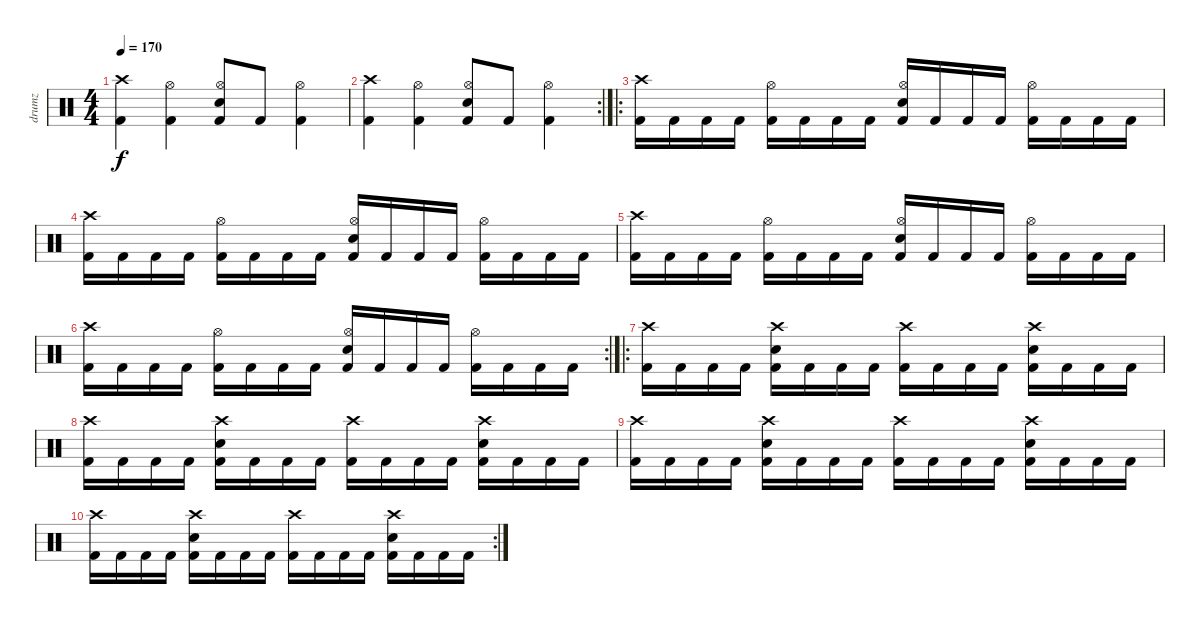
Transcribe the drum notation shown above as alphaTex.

\track ("drumz" "drumz") {instrument percussion}
\staff {score}
\articulation defaults
\ts (4 4)
\tempo 170
\clef neutral
\ks c
("Crash high (hit)" "Kick (hit) 2").4{dy f} ("Hi-Hat (open)" "Kick (hit) 2").4 ("Hi-Hat (open)" "Electric Snare (hit)" "Kick (hit) 2").8 "Kick (hit) 2".8 ("Hi-Hat (open)" "Kick (hit) 2").4 |
\rc 2
("Crash high (hit)" "Kick (hit) 2").4 ("Hi-Hat (open)" "Kick (hit) 2").4 ("Hi-Hat (open)" "Electric Snare (hit)" "Kick (hit) 2").8 "Kick (hit) 2".8 ("Hi-Hat (open)" "Kick (hit) 2").4 |
\ro
("Crash high (hit)" "Kick (hit) 2").16 "Kick (hit) 2".16 "Kick (hit) 2".16 "Kick (hit) 2".16 ("Hi-Hat (open)" "Kick (hit) 2").16 "Kick (hit) 2".16 "Kick (hit) 2".16 "Kick (hit) 2".16 ("Hi-Hat (open)" "Electric Snare (hit)" "Kick (hit) 2").16 "Kick (hit) 2".16 "Kick (hit) 2".16 "Kick (hit) 2".16 ("Hi-Hat (open)" "Kick (hit) 2").16 "Kick (hit) 2".16 "Kick (hit) 2".16 "Kick (hit) 2".16 |
("Crash high (hit)" "Kick (hit) 2").16 "Kick (hit) 2".16 "Kick (hit) 2".16 "Kick (hit) 2".16 ("Hi-Hat (open)" "Kick (hit) 2").16 "Kick (hit) 2".16 "Kick (hit) 2".16 "Kick (hit) 2".16 ("Hi-Hat (open)" "Electric Snare (hit)" "Kick (hit) 2").16 "Kick (hit) 2".16 "Kick (hit) 2".16 "Kick (hit) 2".16 ("Hi-Hat (open)" "Kick (hit) 2").16 "Kick (hit) 2".16 "Kick (hit) 2".16 "Kick (hit) 2".16 |
("Crash high (hit)" "Kick (hit) 2").16 "Kick (hit) 2".16 "Kick (hit) 2".16 "Kick (hit) 2".16 ("Hi-Hat (open)" "Kick (hit) 2").16 "Kick (hit) 2".16 "Kick (hit) 2".16 "Kick (hit) 2".16 ("Hi-Hat (open)" "Electric Snare (hit)" "Kick (hit) 2").16 "Kick (hit) 2".16 "Kick (hit) 2".16 "Kick (hit) 2".16 ("Hi-Hat (open)" "Kick (hit) 2").16 "Kick (hit) 2".16 "Kick (hit) 2".16 "Kick (hit) 2".16 |
\rc 2
("Crash high (hit)" "Kick (hit) 2").16 "Kick (hit) 2".16 "Kick (hit) 2".16 "Kick (hit) 2".16 ("Hi-Hat (open)" "Kick (hit) 2").16 "Kick (hit) 2".16 "Kick (hit) 2".16 "Kick (hit) 2".16 ("Hi-Hat (open)" "Electric Snare (hit)" "Kick (hit) 2").16 "Kick (hit) 2".16 "Kick (hit) 2".16 "Kick (hit) 2".16 ("Hi-Hat (open)" "Kick (hit) 2").16 "Kick (hit) 2".16 "Kick (hit) 2".16 "Kick (hit) 2".16 |
\ro
("Crash high (hit)" "Kick (hit) 2").16 "Kick (hit) 2".16 "Kick (hit) 2".16 "Kick (hit) 2".16 ("Crash high (hit)" "Electric Snare (hit)" "Kick (hit) 2").16 "Kick (hit) 2".16 "Kick (hit) 2".16 "Kick (hit) 2".16 ("Crash high (hit)" "Kick (hit) 2").16 "Kick (hit) 2".16 "Kick (hit) 2".16 "Kick (hit) 2".16 ("Crash high (hit)" "Electric Snare (hit)" "Kick (hit) 2").16 "Kick (hit) 2".16 "Kick (hit) 2".16 "Kick (hit) 2".16 |
("Crash high (hit)" "Kick (hit) 2").16 "Kick (hit) 2".16 "Kick (hit) 2".16 "Kick (hit) 2".16 ("Crash high (hit)" "Electric Snare (hit)" "Kick (hit) 2").16 "Kick (hit) 2".16 "Kick (hit) 2".16 "Kick (hit) 2".16 ("Crash high (hit)" "Kick (hit) 2").16 "Kick (hit) 2".16 "Kick (hit) 2".16 "Kick (hit) 2".16 ("Crash high (hit)" "Electric Snare (hit)" "Kick (hit) 2").16 "Kick (hit) 2".16 "Kick (hit) 2".16 "Kick (hit) 2".16 |
("Crash high (hit)" "Kick (hit) 2").16 "Kick (hit) 2".16 "Kick (hit) 2".16 "Kick (hit) 2".16 ("Crash high (hit)" "Electric Snare (hit)" "Kick (hit) 2").16 "Kick (hit) 2".16 "Kick (hit) 2".16 "Kick (hit) 2".16 ("Crash high (hit)" "Kick (hit) 2").16 "Kick (hit) 2".16 "Kick (hit) 2".16 "Kick (hit) 2".16 ("Crash high (hit)" "Electric Snare (hit)" "Kick (hit) 2").16 "Kick (hit) 2".16 "Kick (hit) 2".16 "Kick (hit) 2".16 |
\rc 2
("Crash high (hit)" "Kick (hit) 2").16 "Kick (hit) 2".16 "Kick (hit) 2".16 "Kick (hit) 2".16 ("Crash high (hit)" "Electric Snare (hit)" "Kick (hit) 2").16 "Kick (hit) 2".16 "Kick (hit) 2".16 "Kick (hit) 2".16 ("Crash high (hit)" "Kick (hit) 2").16 "Kick (hit) 2".16 "Kick (hit) 2".16 "Kick (hit) 2".16 ("Crash high (hit)" "Electric Snare (hit)" "Kick (hit) 2").16 "Kick (hit) 2".16 "Kick (hit) 2".16 "Kick (hit) 2".16
